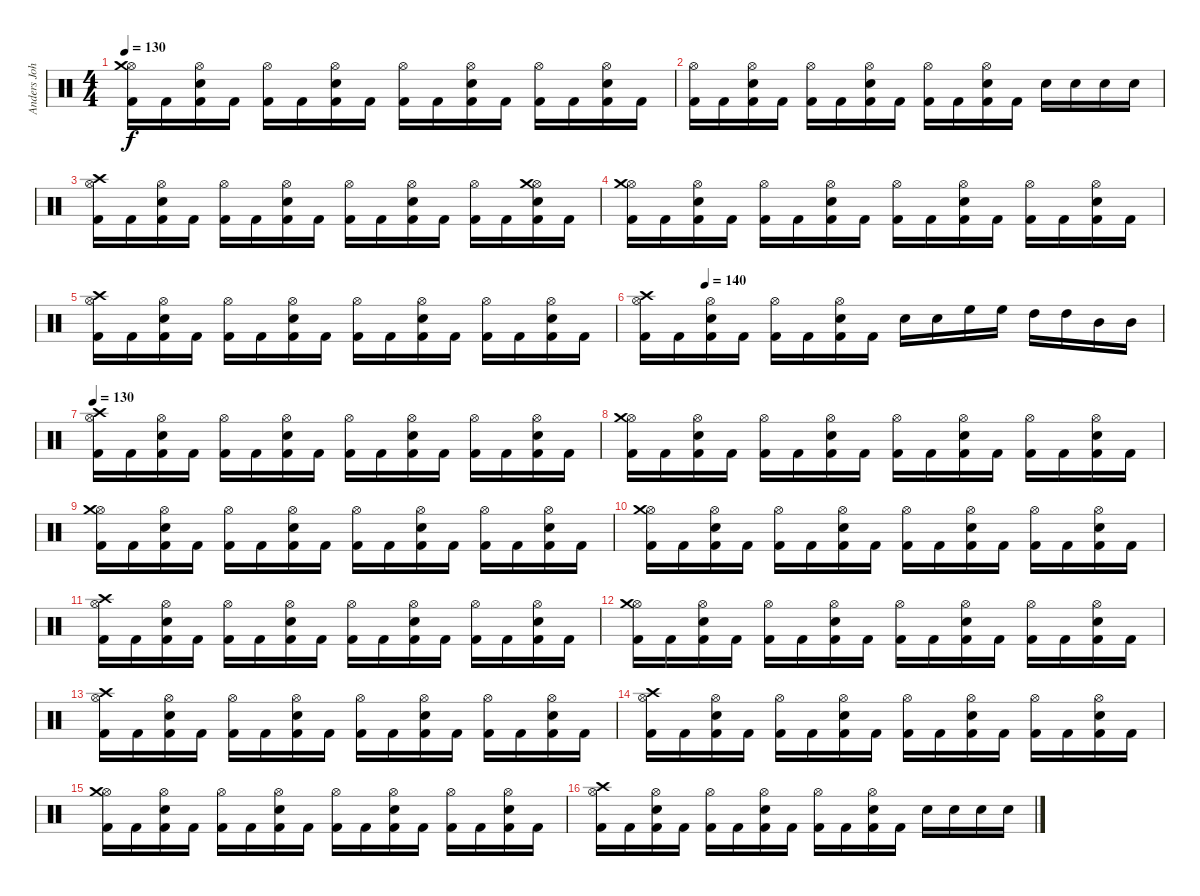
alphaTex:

\track ("Anders Johansson - Drums" "Anders Joh") {instrument percussion}
\staff {score}
\articulation defaults
\ts (4 4)
\tempo 130
\clef neutral
\ks c
("Hi-Hat (open)" "Kick (hit) 2" "Crash medium (hit)").16{dy f} "Kick (hit) 2".16 ("Hi-Hat (open)" "Kick (hit) 2" "Electric Snare (hit)").16 "Kick (hit) 2".16 ("Hi-Hat (open)" "Kick (hit) 2").16 "Kick (hit) 2".16 ("Hi-Hat (open)" "Kick (hit) 2" "Electric Snare (hit)").16 "Kick (hit) 2".16 ("Hi-Hat (open)" "Kick (hit) 2").16 "Kick (hit) 2".16 ("Hi-Hat (open)" "Kick (hit) 2" "Electric Snare (hit)").16 "Kick (hit) 2".16 ("Hi-Hat (open)" "Kick (hit) 2").16 "Kick (hit) 2".16 ("Hi-Hat (open)" "Kick (hit) 2" "Electric Snare (hit)").16 "Kick (hit) 2".16 |
("Hi-Hat (open)" "Kick (hit) 2").16 "Kick (hit) 2".16 ("Hi-Hat (open)" "Kick (hit) 2" "Electric Snare (hit)").16 "Kick (hit) 2".16 ("Hi-Hat (open)" "Kick (hit) 2").16 "Kick (hit) 2".16 ("Hi-Hat (open)" "Kick (hit) 2" "Electric Snare (hit)").16 "Kick (hit) 2".16 ("Hi-Hat (open)" "Kick (hit) 2").16 "Kick (hit) 2".16 ("Hi-Hat (open)" "Kick (hit) 2" "Electric Snare (hit)").16 "Kick (hit) 2".16 "Electric Snare (hit)".16 "Electric Snare (hit)".16 "Electric Snare (hit)".16 "Electric Snare (hit)".16 |
("Hi-Hat (open)" "Kick (hit) 2" "Crash high (hit)").16 "Kick (hit) 2".16 ("Hi-Hat (open)" "Kick (hit) 2" "Electric Snare (hit)").16 "Kick (hit) 2".16 ("Hi-Hat (open)" "Kick (hit) 2").16 "Kick (hit) 2".16 ("Hi-Hat (open)" "Kick (hit) 2" "Electric Snare (hit)").16 "Kick (hit) 2".16 ("Hi-Hat (open)" "Kick (hit) 2").16 "Kick (hit) 2".16 ("Hi-Hat (open)" "Kick (hit) 2" "Electric Snare (hit)").16 "Kick (hit) 2".16 ("Hi-Hat (open)" "Kick (hit) 2").16 "Kick (hit) 2".16 ("Hi-Hat (open)" "Kick (hit) 2" "Electric Snare (hit)" "Crash medium (hit)").16 "Kick (hit) 2".16 |
("Hi-Hat (open)" "Kick (hit) 2" "Crash medium (hit)").16 "Kick (hit) 2".16 ("Hi-Hat (open)" "Kick (hit) 2" "Electric Snare (hit)").16 "Kick (hit) 2".16 ("Hi-Hat (open)" "Kick (hit) 2").16 "Kick (hit) 2".16 ("Hi-Hat (open)" "Kick (hit) 2" "Electric Snare (hit)").16 "Kick (hit) 2".16 ("Hi-Hat (open)" "Kick (hit) 2").16 "Kick (hit) 2".16 ("Hi-Hat (open)" "Kick (hit) 2" "Electric Snare (hit)").16 "Kick (hit) 2".16 ("Hi-Hat (open)" "Kick (hit) 2").16 "Kick (hit) 2".16 ("Hi-Hat (open)" "Kick (hit) 2" "Electric Snare (hit)").16 "Kick (hit) 2".16 |
("Hi-Hat (open)" "Kick (hit) 2" "Crash high (hit)").16 "Kick (hit) 2".16 ("Hi-Hat (open)" "Kick (hit) 2" "Electric Snare (hit)").16 "Kick (hit) 2".16 ("Hi-Hat (open)" "Kick (hit) 2").16 "Kick (hit) 2".16 ("Hi-Hat (open)" "Kick (hit) 2" "Electric Snare (hit)").16 "Kick (hit) 2".16 ("Hi-Hat (open)" "Kick (hit) 2").16 "Kick (hit) 2".16 ("Hi-Hat (open)" "Kick (hit) 2" "Electric Snare (hit)").16 "Kick (hit) 2".16 ("Hi-Hat (open)" "Kick (hit) 2").16 "Kick (hit) 2".16 ("Hi-Hat (open)" "Kick (hit) 2" "Electric Snare (hit)").16 "Kick (hit) 2".16 |
\tempo (140 0.125)
("Hi-Hat (open)" "Kick (hit) 2" "Crash high (hit)").16 "Kick (hit) 2".16 ("Hi-Hat (open)" "Kick (hit) 2" "Electric Snare (hit)").16 "Kick (hit) 2".16 ("Hi-Hat (open)" "Kick (hit) 2").16 "Kick (hit) 2".16 ("Hi-Hat (open)" "Kick (hit) 2" "Electric Snare (hit)").16 "Kick (hit) 2".16 "Electric Snare (hit)".16 "Electric Snare (hit)".16 "High Floor Tom (hit)".16 "High Floor Tom (hit)".16 "High Tom (hit)".16 "High Tom (hit)".16 "Mid Tom (hit)".16 "Mid Tom (hit)".16 |
\tempo 130
("Hi-Hat (open)" "Kick (hit) 2" "Crash high (hit)").16 "Kick (hit) 2".16 ("Hi-Hat (open)" "Kick (hit) 2" "Electric Snare (hit)").16 "Kick (hit) 2".16 ("Hi-Hat (open)" "Kick (hit) 2").16 "Kick (hit) 2".16 ("Hi-Hat (open)" "Kick (hit) 2" "Electric Snare (hit)").16 "Kick (hit) 2".16 ("Hi-Hat (open)" "Kick (hit) 2").16 "Kick (hit) 2".16 ("Hi-Hat (open)" "Kick (hit) 2" "Electric Snare (hit)").16 "Kick (hit) 2".16 ("Hi-Hat (open)" "Kick (hit) 2").16 "Kick (hit) 2".16 ("Hi-Hat (open)" "Kick (hit) 2" "Electric Snare (hit)").16 "Kick (hit) 2".16 |
("Hi-Hat (open)" "Kick (hit) 2" "Crash medium (hit)").16 "Kick (hit) 2".16 ("Hi-Hat (open)" "Kick (hit) 2" "Electric Snare (hit)").16 "Kick (hit) 2".16 ("Hi-Hat (open)" "Kick (hit) 2").16 "Kick (hit) 2".16 ("Hi-Hat (open)" "Kick (hit) 2" "Electric Snare (hit)").16 "Kick (hit) 2".16 ("Hi-Hat (open)" "Kick (hit) 2").16 "Kick (hit) 2".16 ("Hi-Hat (open)" "Kick (hit) 2" "Electric Snare (hit)").16 "Kick (hit) 2".16 ("Hi-Hat (open)" "Kick (hit) 2").16 "Kick (hit) 2".16 ("Hi-Hat (open)" "Kick (hit) 2" "Electric Snare (hit)").16 "Kick (hit) 2".16 |
("Hi-Hat (open)" "Kick (hit) 2" "Crash medium (hit)").16 "Kick (hit) 2".16 ("Hi-Hat (open)" "Kick (hit) 2" "Electric Snare (hit)").16 "Kick (hit) 2".16 ("Hi-Hat (open)" "Kick (hit) 2").16 "Kick (hit) 2".16 ("Hi-Hat (open)" "Kick (hit) 2" "Electric Snare (hit)").16 "Kick (hit) 2".16 ("Hi-Hat (open)" "Kick (hit) 2").16 "Kick (hit) 2".16 ("Hi-Hat (open)" "Kick (hit) 2" "Electric Snare (hit)").16 "Kick (hit) 2".16 ("Hi-Hat (open)" "Kick (hit) 2").16 "Kick (hit) 2".16 ("Hi-Hat (open)" "Kick (hit) 2" "Electric Snare (hit)").16 "Kick (hit) 2".16 |
("Hi-Hat (open)" "Kick (hit) 2" "Crash medium (hit)").16 "Kick (hit) 2".16 ("Hi-Hat (open)" "Kick (hit) 2" "Electric Snare (hit)").16 "Kick (hit) 2".16 ("Hi-Hat (open)" "Kick (hit) 2").16 "Kick (hit) 2".16 ("Hi-Hat (open)" "Kick (hit) 2" "Electric Snare (hit)").16 "Kick (hit) 2".16 ("Hi-Hat (open)" "Kick (hit) 2").16 "Kick (hit) 2".16 ("Hi-Hat (open)" "Kick (hit) 2" "Electric Snare (hit)").16 "Kick (hit) 2".16 ("Hi-Hat (open)" "Kick (hit) 2").16 "Kick (hit) 2".16 ("Hi-Hat (open)" "Kick (hit) 2" "Electric Snare (hit)").16 "Kick (hit) 2".16 |
("Hi-Hat (open)" "Kick (hit) 2" "Crash high (hit)").16 "Kick (hit) 2".16 ("Hi-Hat (open)" "Kick (hit) 2" "Electric Snare (hit)").16 "Kick (hit) 2".16 ("Hi-Hat (open)" "Kick (hit) 2").16 "Kick (hit) 2".16 ("Hi-Hat (open)" "Kick (hit) 2" "Electric Snare (hit)").16 "Kick (hit) 2".16 ("Hi-Hat (open)" "Kick (hit) 2").16 "Kick (hit) 2".16 ("Hi-Hat (open)" "Kick (hit) 2" "Electric Snare (hit)").16 "Kick (hit) 2".16 ("Hi-Hat (open)" "Kick (hit) 2").16 "Kick (hit) 2".16 ("Hi-Hat (open)" "Kick (hit) 2" "Electric Snare (hit)").16 "Kick (hit) 2".16 |
("Hi-Hat (open)" "Kick (hit) 2" "Crash medium (hit)").16 "Kick (hit) 2".16 ("Hi-Hat (open)" "Kick (hit) 2" "Electric Snare (hit)").16 "Kick (hit) 2".16 ("Hi-Hat (open)" "Kick (hit) 2").16 "Kick (hit) 2".16 ("Hi-Hat (open)" "Kick (hit) 2" "Electric Snare (hit)").16 "Kick (hit) 2".16 ("Hi-Hat (open)" "Kick (hit) 2").16 "Kick (hit) 2".16 ("Hi-Hat (open)" "Kick (hit) 2" "Electric Snare (hit)").16 "Kick (hit) 2".16 ("Hi-Hat (open)" "Kick (hit) 2").16 "Kick (hit) 2".16 ("Hi-Hat (open)" "Kick (hit) 2" "Electric Snare (hit)").16 "Kick (hit) 2".16 |
("Hi-Hat (open)" "Kick (hit) 2" "Crash high (hit)").16 "Kick (hit) 2".16 ("Hi-Hat (open)" "Kick (hit) 2" "Electric Snare (hit)").16 "Kick (hit) 2".16 ("Hi-Hat (open)" "Kick (hit) 2").16 "Kick (hit) 2".16 ("Hi-Hat (open)" "Kick (hit) 2" "Electric Snare (hit)").16 "Kick (hit) 2".16 ("Hi-Hat (open)" "Kick (hit) 2").16 "Kick (hit) 2".16 ("Hi-Hat (open)" "Kick (hit) 2" "Electric Snare (hit)").16 "Kick (hit) 2".16 ("Hi-Hat (open)" "Kick (hit) 2").16 "Kick (hit) 2".16 ("Hi-Hat (open)" "Kick (hit) 2" "Electric Snare (hit)").16 "Kick (hit) 2".16 |
("Hi-Hat (open)" "Kick (hit) 2" "Crash high (hit)").16 "Kick (hit) 2".16 ("Hi-Hat (open)" "Kick (hit) 2" "Electric Snare (hit)").16 "Kick (hit) 2".16 ("Hi-Hat (open)" "Kick (hit) 2").16 "Kick (hit) 2".16 ("Hi-Hat (open)" "Kick (hit) 2" "Electric Snare (hit)").16 "Kick (hit) 2".16 ("Hi-Hat (open)" "Kick (hit) 2").16 "Kick (hit) 2".16 ("Hi-Hat (open)" "Kick (hit) 2" "Electric Snare (hit)").16 "Kick (hit) 2".16 ("Hi-Hat (open)" "Kick (hit) 2").16 "Kick (hit) 2".16 ("Hi-Hat (open)" "Kick (hit) 2" "Electric Snare (hit)").16 "Kick (hit) 2".16 |
("Hi-Hat (open)" "Kick (hit) 2" "Crash medium (hit)").16 "Kick (hit) 2".16 ("Hi-Hat (open)" "Kick (hit) 2" "Electric Snare (hit)").16 "Kick (hit) 2".16 ("Hi-Hat (open)" "Kick (hit) 2").16 "Kick (hit) 2".16 ("Hi-Hat (open)" "Kick (hit) 2" "Electric Snare (hit)").16 "Kick (hit) 2".16 ("Hi-Hat (open)" "Kick (hit) 2").16 "Kick (hit) 2".16 ("Hi-Hat (open)" "Kick (hit) 2" "Electric Snare (hit)").16 "Kick (hit) 2".16 ("Hi-Hat (open)" "Kick (hit) 2").16 "Kick (hit) 2".16 ("Hi-Hat (open)" "Kick (hit) 2" "Electric Snare (hit)").16 "Kick (hit) 2".16 |
("Hi-Hat (open)" "Kick (hit) 2" "Crash high (hit)").16 "Kick (hit) 2".16 ("Hi-Hat (open)" "Kick (hit) 2" "Electric Snare (hit)").16 "Kick (hit) 2".16 ("Hi-Hat (open)" "Kick (hit) 2").16 "Kick (hit) 2".16 ("Hi-Hat (open)" "Kick (hit) 2" "Electric Snare (hit)").16 "Kick (hit) 2".16 ("Hi-Hat (open)" "Kick (hit) 2").16 "Kick (hit) 2".16 ("Hi-Hat (open)" "Kick (hit) 2" "Electric Snare (hit)").16 "Kick (hit) 2".16 "Electric Snare (hit)".16 "Electric Snare (hit)".16 "Electric Snare (hit)".16 "Electric Snare (hit)".16
